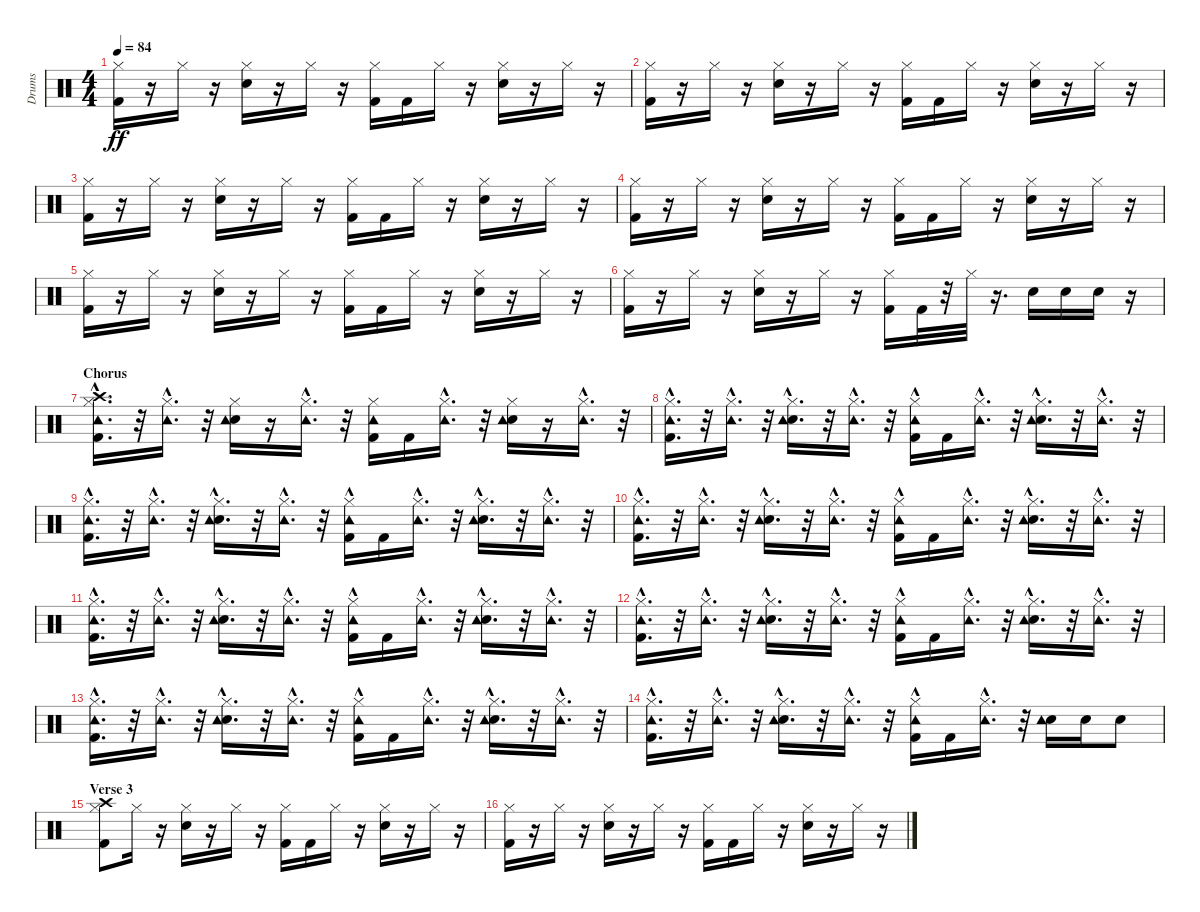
\track ("Drums" "Drums") {instrument percussion}
\staff {score}
\articulation defaults
\ts (4 4)
\tempo 84
\clef neutral
\ks c
("Kick (hit) 2" "Hi-Hat (closed)").16{dy ff} r.16 "Hi-Hat (closed)".16 r.16 ("Snare (hit) 2" "Hi-Hat (closed)").16 r.16 "Hi-Hat (closed)".16 r.16 ("Kick (hit) 2" "Hi-Hat (closed)").16 "Kick (hit) 2".16 "Hi-Hat (closed)".16 r.16 ("Snare (hit) 2" "Hi-Hat (closed)").16 r.16 "Hi-Hat (closed)".16 r.16 |
("Kick (hit) 2" "Hi-Hat (closed)").16 r.16 "Hi-Hat (closed)".16 r.16 ("Snare (hit) 2" "Hi-Hat (closed)").16 r.16 "Hi-Hat (closed)".16 r.16 ("Kick (hit) 2" "Hi-Hat (closed)").16 "Kick (hit) 2".16 "Hi-Hat (closed)".16 r.16 ("Snare (hit) 2" "Hi-Hat (closed)").16 r.16 "Hi-Hat (closed)".16 r.16 |
("Kick (hit) 2" "Hi-Hat (closed)").16 r.16 "Hi-Hat (closed)".16 r.16 ("Snare (hit) 2" "Hi-Hat (closed)").16 r.16 "Hi-Hat (closed)".16 r.16 ("Kick (hit) 2" "Hi-Hat (closed)").16 "Kick (hit) 2".16 "Hi-Hat (closed)".16 r.16 ("Snare (hit) 2" "Hi-Hat (closed)").16 r.16 "Hi-Hat (closed)".16 r.16 |
("Kick (hit) 2" "Hi-Hat (closed)").16 r.16 "Hi-Hat (closed)".16 r.16 ("Snare (hit) 2" "Hi-Hat (closed)").16 r.16 "Hi-Hat (closed)".16 r.16 ("Kick (hit) 2" "Hi-Hat (closed)").16 "Kick (hit) 2".16 "Hi-Hat (closed)".16 r.16 ("Snare (hit) 2" "Hi-Hat (closed)").16 r.16 "Hi-Hat (closed)".16 r.16 |
("Kick (hit) 2" "Hi-Hat (closed)").16 r.16 "Hi-Hat (closed)".16 r.16 ("Snare (hit) 2" "Hi-Hat (closed)").16 r.16 "Hi-Hat (closed)".16 r.16 ("Kick (hit) 2" "Hi-Hat (closed)").16 "Kick (hit) 2".16 "Hi-Hat (closed)".16 r.16 ("Snare (hit) 2" "Hi-Hat (closed)").16 r.16 "Hi-Hat (closed)".16 r.16 |
("Kick (hit) 2" "Hi-Hat (closed)").16 r.16 "Hi-Hat (closed)".16 r.16 ("Snare (hit) 2" "Hi-Hat (closed)").16 r.16 "Hi-Hat (closed)".16 r.16 ("Kick (hit) 2" "Hi-Hat (closed)").16 "Kick (hit) 2".32 r.32 "Hi-Hat (closed)".32 r.16{d} "Snare (hit) 2".16 "Snare (hit) 2".16 "Snare (hit) 2".16 r.16 |
\section ("" "Chorus")
("Kick (hit) 2" "Hi-Hat (closed)" "Crash high (hit)" "Tambourine (hit)"{hac}).16{d} r.32 ("Hi-Hat (closed)" "Tambourine (hit)"{hac}).16{d} r.32 ("Snare (hit) 2" "Hi-Hat (closed)" "Tambourine (hit)").16 r.16 ("Hi-Hat (closed)" "Tambourine (hit)"{hac}).16{d} r.32 ("Kick (hit) 2" "Hi-Hat (closed)" "Tambourine (hit)").16 "Kick (hit) 2".16 ("Hi-Hat (closed)" "Tambourine (hit)"{hac}).16{d} r.32 ("Snare (hit) 2" "Hi-Hat (closed)" "Tambourine (hit)").16 r.16 ("Hi-Hat (closed)" "Tambourine (hit)"{hac}).16{d} r.32 |
("Kick (hit) 2" "Hi-Hat (closed)" "Tambourine (hit)"{hac}).16{d} r.32 ("Hi-Hat (closed)" "Tambourine (hit)"{hac}).16{d} r.32 ("Snare (hit) 2" "Hi-Hat (closed)" "Tambourine (hit)"{hac}).16{d} r.32 ("Hi-Hat (closed)" "Tambourine (hit)"{hac}).16{d} r.32 ("Kick (hit) 2" "Hi-Hat (closed)" "Tambourine (hit)"{hac}).16 "Kick (hit) 2".16 ("Hi-Hat (closed)" "Tambourine (hit)"{hac}).16{d} r.32 ("Snare (hit) 2" "Hi-Hat (closed)" "Tambourine (hit)"{hac}).16{d} r.32 ("Hi-Hat (closed)" "Tambourine (hit)"{hac}).16{d} r.32 |
("Kick (hit) 2" "Hi-Hat (closed)" "Tambourine (hit)"{hac}).16{d} r.32 ("Hi-Hat (closed)" "Tambourine (hit)"{hac}).16{d} r.32 ("Snare (hit) 2" "Hi-Hat (closed)" "Tambourine (hit)"{hac}).16{d} r.32 ("Hi-Hat (closed)" "Tambourine (hit)"{hac}).16{d} r.32 ("Kick (hit) 2" "Hi-Hat (closed)" "Tambourine (hit)"{hac}).16 "Kick (hit) 2".16 ("Hi-Hat (closed)" "Tambourine (hit)"{hac}).16{d} r.32 ("Snare (hit) 2" "Hi-Hat (closed)" "Tambourine (hit)"{hac}).16{d} r.32 ("Hi-Hat (closed)" "Tambourine (hit)"{hac}).16{d} r.32 |
("Kick (hit) 2" "Hi-Hat (closed)" "Tambourine (hit)"{hac}).16{d} r.32 ("Hi-Hat (closed)" "Tambourine (hit)"{hac}).16{d} r.32 ("Snare (hit) 2" "Hi-Hat (closed)" "Tambourine (hit)"{hac}).16{d} r.32 ("Hi-Hat (closed)" "Tambourine (hit)"{hac}).16{d} r.32 ("Kick (hit) 2" "Hi-Hat (closed)" "Tambourine (hit)"{hac}).16 "Kick (hit) 2".16 ("Hi-Hat (closed)" "Tambourine (hit)"{hac}).16{d} r.32 ("Snare (hit) 2" "Hi-Hat (closed)" "Tambourine (hit)"{hac}).16{d} r.32 ("Hi-Hat (closed)" "Tambourine (hit)"{hac}).16{d} r.32 |
("Kick (hit) 2" "Hi-Hat (closed)" "Tambourine (hit)"{hac}).16{d} r.32 ("Hi-Hat (closed)" "Tambourine (hit)"{hac}).16{d} r.32 ("Snare (hit) 2" "Hi-Hat (closed)" "Tambourine (hit)"{hac}).16{d} r.32 ("Hi-Hat (closed)" "Tambourine (hit)"{hac}).16{d} r.32 ("Kick (hit) 2" "Hi-Hat (closed)" "Tambourine (hit)"{hac}).16 "Kick (hit) 2".16 ("Hi-Hat (closed)" "Tambourine (hit)"{hac}).16{d} r.32 ("Snare (hit) 2" "Hi-Hat (closed)" "Tambourine (hit)"{hac}).16{d} r.32 ("Hi-Hat (closed)" "Tambourine (hit)"{hac}).16{d} r.32 |
("Kick (hit) 2" "Hi-Hat (closed)" "Tambourine (hit)"{hac}).16{d} r.32 ("Hi-Hat (closed)" "Tambourine (hit)"{hac}).16{d} r.32 ("Snare (hit) 2" "Hi-Hat (closed)" "Tambourine (hit)"{hac}).16{d} r.32 ("Hi-Hat (closed)" "Tambourine (hit)"{hac}).16{d} r.32 ("Kick (hit) 2" "Hi-Hat (closed)" "Tambourine (hit)"{hac}).16 "Kick (hit) 2".16 ("Hi-Hat (closed)" "Tambourine (hit)"{hac}).16{d} r.32 ("Snare (hit) 2" "Hi-Hat (closed)" "Tambourine (hit)"{hac}).16{d} r.32 ("Hi-Hat (closed)" "Tambourine (hit)"{hac}).16{d} r.32 |
("Kick (hit) 2" "Hi-Hat (closed)" "Tambourine (hit)"{hac}).16{d} r.32 ("Hi-Hat (closed)" "Tambourine (hit)"{hac}).16{d} r.32 ("Snare (hit) 2" "Hi-Hat (closed)" "Tambourine (hit)"{hac}).16{d} r.32 ("Hi-Hat (closed)" "Tambourine (hit)"{hac}).16{d} r.32 ("Kick (hit) 2" "Hi-Hat (closed)" "Tambourine (hit)"{hac}).16 "Kick (hit) 2".16 ("Hi-Hat (closed)" "Tambourine (hit)"{hac}).16{d} r.32 ("Snare (hit) 2" "Hi-Hat (closed)" "Tambourine (hit)"{hac}).16{d} r.32 ("Hi-Hat (closed)" "Tambourine (hit)"{hac}).16{d} r.32 |
("Kick (hit) 2" "Hi-Hat (closed)" "Tambourine (hit)"{hac}).16{d} r.32 ("Hi-Hat (closed)" "Tambourine (hit)"{hac}).16{d} r.32 ("Snare (hit) 2" "Hi-Hat (closed)" "Tambourine (hit)"{hac}).16{d} r.32 ("Hi-Hat (closed)" "Tambourine (hit)"{hac}).16{d} r.32 ("Kick (hit) 2" "Hi-Hat (closed)" "Tambourine (hit)"{hac}).16 "Kick (hit) 2".16 ("Hi-Hat (closed)" "Tambourine (hit)"{hac}).16{d} r.32 ("Snare (hit) 2" "Tambourine (hit)").16 "Snare (hit) 2".16 "Snare (hit) 2".8 |
\section ("" "Verse 3")
("Kick (hit) 2" "Hi-Hat (closed)" "Crash high (hit)").8 "Hi-Hat (closed)".16 r.16 ("Snare (hit) 2" "Hi-Hat (closed)").16 r.16 "Hi-Hat (closed)".16 r.16 ("Kick (hit) 2" "Hi-Hat (closed)").16 "Kick (hit) 2".16 "Hi-Hat (closed)".16 r.16 ("Snare (hit) 2" "Hi-Hat (closed)").16 r.16 "Hi-Hat (closed)".16 r.16 |
("Kick (hit) 2" "Hi-Hat (closed)").16 r.16 "Hi-Hat (closed)".16 r.16 ("Snare (hit) 2" "Hi-Hat (closed)").16 r.16 "Hi-Hat (closed)".16 r.16 ("Kick (hit) 2" "Hi-Hat (closed)").16 "Kick (hit) 2".16 "Hi-Hat (closed)".16 r.16 ("Snare (hit) 2" "Hi-Hat (closed)").16 r.16 "Hi-Hat (closed)".16 r.16
